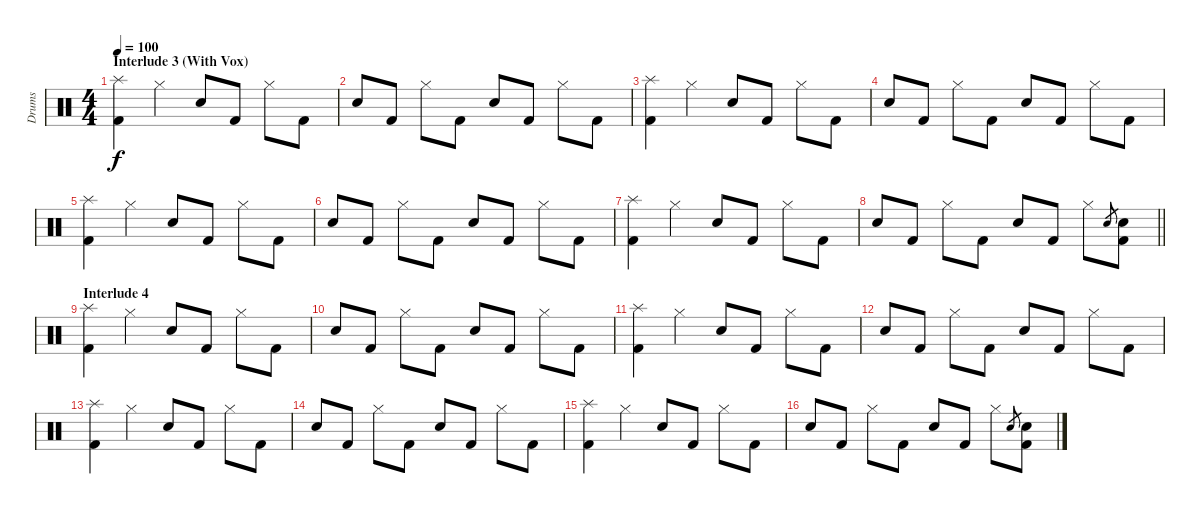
\track ("Drums" "Drums") {instrument percussion}
\staff {score}
\articulation defaults
\ts (4 4)
\section ("" "Interlude 3 (With Vox)")
\tempo 100
\clef neutral
\ks c
("Splash (hit)" "Kick (hit) 2").4{dy f} "Hi-Hat (closed)".4 "Snare (hit) 2".8 "Kick (hit) 2".8 "Hi-Hat (closed)".8 "Kick (hit) 2".8 |
"Snare (hit) 2".8 "Kick (hit) 2".8 "Hi-Hat (closed)".8 "Kick (hit) 2".8 "Snare (hit) 2".8 "Kick (hit) 2".8 "Hi-Hat (closed)".8 "Kick (hit) 2".8 |
("Splash (hit)" "Kick (hit) 2").4 "Hi-Hat (closed)".4 "Snare (hit) 2".8 "Kick (hit) 2".8 "Hi-Hat (closed)".8 "Kick (hit) 2".8 |
"Snare (hit) 2".8 "Kick (hit) 2".8 "Hi-Hat (closed)".8 "Kick (hit) 2".8 "Snare (hit) 2".8 "Kick (hit) 2".8 "Hi-Hat (closed)".8 "Kick (hit) 2".8 |
("Splash (hit)" "Kick (hit) 2").4 "Hi-Hat (closed)".4 "Snare (hit) 2".8 "Kick (hit) 2".8 "Hi-Hat (closed)".8 "Kick (hit) 2".8 |
"Snare (hit) 2".8 "Kick (hit) 2".8 "Hi-Hat (closed)".8 "Kick (hit) 2".8 "Snare (hit) 2".8 "Kick (hit) 2".8 "Hi-Hat (closed)".8 "Kick (hit) 2".8 |
("Splash (hit)" "Kick (hit) 2").4 "Hi-Hat (closed)".4 "Snare (hit) 2".8 "Kick (hit) 2".8 "Hi-Hat (closed)".8 "Kick (hit) 2".8 |
\barLineRight lightlight "Snare (hit) 2".8 "Kick (hit) 2".8 "Hi-Hat (closed)".8 "Kick (hit) 2".8 "Snare (hit) 2".8 "Kick (hit) 2".8 "Hi-Hat (closed)".8 "Snare (hit) 2".8{gr}
("Snare (hit) 2" "Kick (hit) 2").8 |
\section ("" "Interlude 4")
("Splash (hit)" "Kick (hit) 2").4 "Hi-Hat (closed)".4 "Snare (hit) 2".8 "Kick (hit) 2".8 "Hi-Hat (closed)".8 "Kick (hit) 2".8 |
"Snare (hit) 2".8 "Kick (hit) 2".8 "Hi-Hat (closed)".8 "Kick (hit) 2".8 "Snare (hit) 2".8 "Kick (hit) 2".8 "Hi-Hat (closed)".8 "Kick (hit) 2".8 |
("Splash (hit)" "Kick (hit) 2").4 "Hi-Hat (closed)".4 "Snare (hit) 2".8 "Kick (hit) 2".8 "Hi-Hat (closed)".8 "Kick (hit) 2".8 |
"Snare (hit) 2".8 "Kick (hit) 2".8 "Hi-Hat (closed)".8 "Kick (hit) 2".8 "Snare (hit) 2".8 "Kick (hit) 2".8 "Hi-Hat (closed)".8 "Kick (hit) 2".8 |
("Splash (hit)" "Kick (hit) 2").4 "Hi-Hat (closed)".4 "Snare (hit) 2".8 "Kick (hit) 2".8 "Hi-Hat (closed)".8 "Kick (hit) 2".8 |
"Snare (hit) 2".8 "Kick (hit) 2".8 "Hi-Hat (closed)".8 "Kick (hit) 2".8 "Snare (hit) 2".8 "Kick (hit) 2".8 "Hi-Hat (closed)".8 "Kick (hit) 2".8 |
("Splash (hit)" "Kick (hit) 2").4 "Hi-Hat (closed)".4 "Snare (hit) 2".8 "Kick (hit) 2".8 "Hi-Hat (closed)".8 "Kick (hit) 2".8 |
"Snare (hit) 2".8 "Kick (hit) 2".8 "Hi-Hat (closed)".8 "Kick (hit) 2".8 "Snare (hit) 2".8 "Kick (hit) 2".8 "Hi-Hat (closed)".8 "Snare (hit) 2".8{gr} ("Snare (hit) 2" "Kick (hit) 2").8
